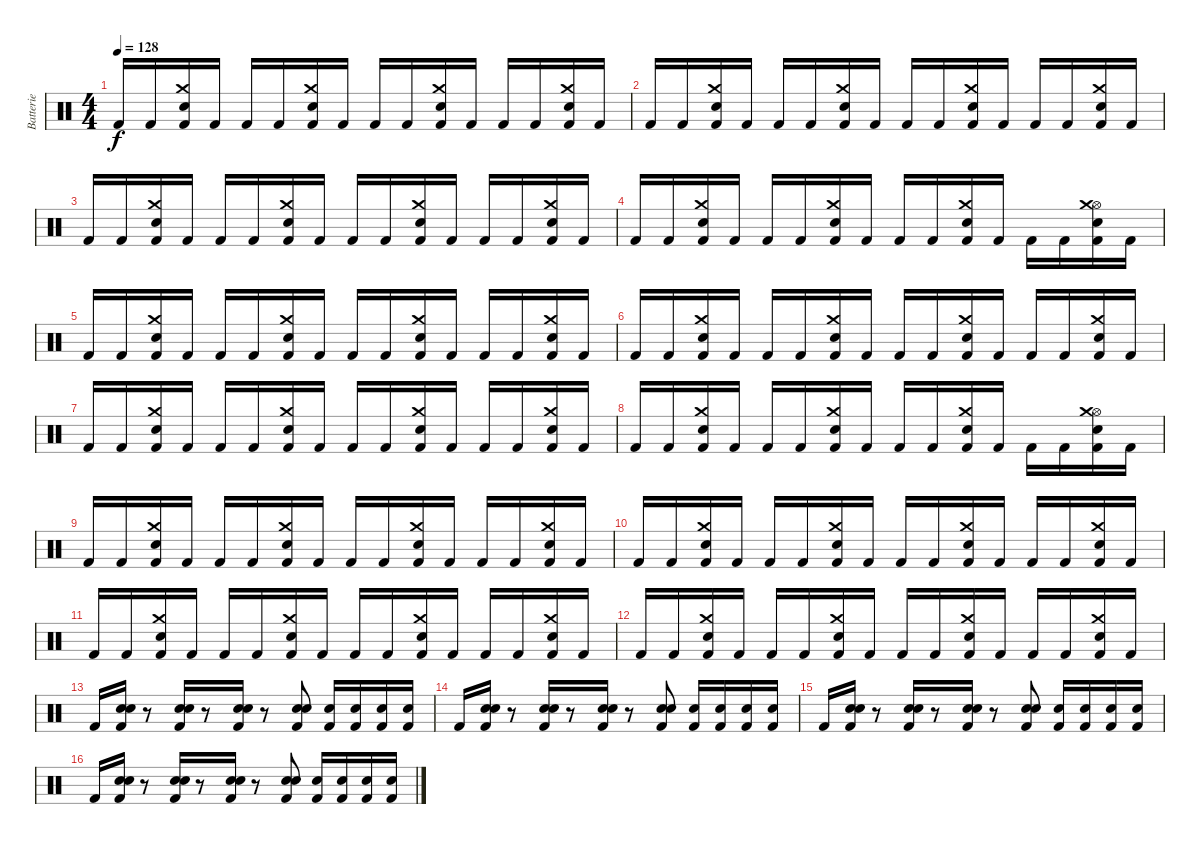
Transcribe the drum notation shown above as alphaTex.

\track ("Batterie" "Batterie") {instrument percussion}
\staff {score}
\articulation defaults
\ts (4 4)
\tempo 128
\clef neutral
\ks c "Kick (hit) 2".16{dy f} "Kick (hit) 2".16
("Crash medium (hit)" "Electric Snare (hit)" "Kick (hit) 2").16 "Kick (hit) 2".16 "Kick (hit) 2".16 "Kick (hit) 2".16 ("Crash medium (hit)" "Electric Snare (hit)" "Kick (hit) 2").16 "Kick (hit) 2".16 "Kick (hit) 2".16 "Kick (hit) 2".16 ("Electric Snare (hit)" "Crash medium (hit)" "Kick (hit) 2").16 "Kick (hit) 2".16 "Kick (hit) 2".16 "Kick (hit) 2".16 ("Crash medium (hit)" "Electric Snare (hit)" "Kick (hit) 2").16 "Kick (hit) 2".16 |
"Kick (hit) 2".16 "Kick (hit) 2".16 ("Crash medium (hit)" "Electric Snare (hit)" "Kick (hit) 2").16 "Kick (hit) 2".16 "Kick (hit) 2".16 "Kick (hit) 2".16 ("Crash medium (hit)" "Electric Snare (hit)" "Kick (hit) 2").16 "Kick (hit) 2".16 "Kick (hit) 2".16 "Kick (hit) 2".16 ("Electric Snare (hit)" "Crash medium (hit)" "Kick (hit) 2").16 "Kick (hit) 2".16 "Kick (hit) 2".16 "Kick (hit) 2".16 ("Crash medium (hit)" "Electric Snare (hit)" "Kick (hit) 2").16 "Kick (hit) 2".16 |
"Kick (hit) 2".16 "Kick (hit) 2".16 ("Crash medium (hit)" "Electric Snare (hit)" "Kick (hit) 2").16 "Kick (hit) 2".16 "Kick (hit) 2".16 "Kick (hit) 2".16 ("Crash medium (hit)" "Electric Snare (hit)" "Kick (hit) 2").16 "Kick (hit) 2".16 "Kick (hit) 2".16 "Kick (hit) 2".16 ("Electric Snare (hit)" "Crash medium (hit)" "Kick (hit) 2").16 "Kick (hit) 2".16 "Kick (hit) 2".16 "Kick (hit) 2".16 ("Crash medium (hit)" "Electric Snare (hit)" "Kick (hit) 2").16 "Kick (hit) 2".16 |
"Kick (hit) 2".16 "Kick (hit) 2".16 ("Crash medium (hit)" "Electric Snare (hit)" "Kick (hit) 2").16 "Kick (hit) 2".16 "Kick (hit) 2".16 "Kick (hit) 2".16 ("Crash medium (hit)" "Electric Snare (hit)" "Kick (hit) 2").16 "Kick (hit) 2".16 "Kick (hit) 2".16 "Kick (hit) 2".16 ("Electric Snare (hit)" "Crash medium (hit)" "Kick (hit) 2").16 "Kick (hit) 2".16 "Kick (hit) 2".16 "Kick (hit) 2".16 ("Hi-Hat (open)" "Crash medium (hit)" "Electric Snare (hit)" "Kick (hit) 2").16 "Kick (hit) 2".16 |
"Kick (hit) 2".16 "Kick (hit) 2".16 ("Crash medium (hit)" "Electric Snare (hit)" "Kick (hit) 2").16 "Kick (hit) 2".16 "Kick (hit) 2".16 "Kick (hit) 2".16 ("Crash medium (hit)" "Electric Snare (hit)" "Kick (hit) 2").16 "Kick (hit) 2".16 "Kick (hit) 2".16 "Kick (hit) 2".16 ("Electric Snare (hit)" "Crash medium (hit)" "Kick (hit) 2").16 "Kick (hit) 2".16 "Kick (hit) 2".16 "Kick (hit) 2".16 ("Crash medium (hit)" "Electric Snare (hit)" "Kick (hit) 2").16 "Kick (hit) 2".16 |
"Kick (hit) 2".16 "Kick (hit) 2".16 ("Crash medium (hit)" "Electric Snare (hit)" "Kick (hit) 2").16 "Kick (hit) 2".16 "Kick (hit) 2".16 "Kick (hit) 2".16 ("Crash medium (hit)" "Electric Snare (hit)" "Kick (hit) 2").16 "Kick (hit) 2".16 "Kick (hit) 2".16 "Kick (hit) 2".16 ("Electric Snare (hit)" "Crash medium (hit)" "Kick (hit) 2").16 "Kick (hit) 2".16 "Kick (hit) 2".16 "Kick (hit) 2".16 ("Crash medium (hit)" "Electric Snare (hit)" "Kick (hit) 2").16 "Kick (hit) 2".16 |
"Kick (hit) 2".16 "Kick (hit) 2".16 ("Crash medium (hit)" "Electric Snare (hit)" "Kick (hit) 2").16 "Kick (hit) 2".16 "Kick (hit) 2".16 "Kick (hit) 2".16 ("Crash medium (hit)" "Electric Snare (hit)" "Kick (hit) 2").16 "Kick (hit) 2".16 "Kick (hit) 2".16 "Kick (hit) 2".16 ("Electric Snare (hit)" "Crash medium (hit)" "Kick (hit) 2").16 "Kick (hit) 2".16 "Kick (hit) 2".16 "Kick (hit) 2".16 ("Crash medium (hit)" "Electric Snare (hit)" "Kick (hit) 2").16 "Kick (hit) 2".16 |
"Kick (hit) 2".16 "Kick (hit) 2".16 ("Crash medium (hit)" "Electric Snare (hit)" "Kick (hit) 2").16 "Kick (hit) 2".16 "Kick (hit) 2".16 "Kick (hit) 2".16 ("Crash medium (hit)" "Electric Snare (hit)" "Kick (hit) 2").16 "Kick (hit) 2".16 "Kick (hit) 2".16 "Kick (hit) 2".16 ("Electric Snare (hit)" "Crash medium (hit)" "Kick (hit) 2").16 "Kick (hit) 2".16 "Kick (hit) 2".16 "Kick (hit) 2".16 ("Hi-Hat (open)" "Crash medium (hit)" "Electric Snare (hit)" "Kick (hit) 2").16 "Kick (hit) 2".16 |
"Kick (hit) 2".16 "Kick (hit) 2".16 ("Crash medium (hit)" "Electric Snare (hit)" "Kick (hit) 2").16 "Kick (hit) 2".16 "Kick (hit) 2".16 "Kick (hit) 2".16 ("Crash medium (hit)" "Electric Snare (hit)" "Kick (hit) 2").16 "Kick (hit) 2".16 "Kick (hit) 2".16 "Kick (hit) 2".16 ("Electric Snare (hit)" "Crash medium (hit)" "Kick (hit) 2").16 "Kick (hit) 2".16 "Kick (hit) 2".16 "Kick (hit) 2".16 ("Crash medium (hit)" "Electric Snare (hit)" "Kick (hit) 2").16 "Kick (hit) 2".16 |
"Kick (hit) 2".16 "Kick (hit) 2".16 ("Crash medium (hit)" "Electric Snare (hit)" "Kick (hit) 2").16 "Kick (hit) 2".16 "Kick (hit) 2".16 "Kick (hit) 2".16 ("Crash medium (hit)" "Electric Snare (hit)" "Kick (hit) 2").16 "Kick (hit) 2".16 "Kick (hit) 2".16 "Kick (hit) 2".16 ("Electric Snare (hit)" "Crash medium (hit)" "Kick (hit) 2").16 "Kick (hit) 2".16 "Kick (hit) 2".16 "Kick (hit) 2".16 ("Crash medium (hit)" "Electric Snare (hit)" "Kick (hit) 2").16 "Kick (hit) 2".16 |
"Kick (hit) 2".16 "Kick (hit) 2".16 ("Crash medium (hit)" "Electric Snare (hit)" "Kick (hit) 2").16 "Kick (hit) 2".16 "Kick (hit) 2".16 "Kick (hit) 2".16 ("Crash medium (hit)" "Electric Snare (hit)" "Kick (hit) 2").16 "Kick (hit) 2".16 "Kick (hit) 2".16 "Kick (hit) 2".16 ("Electric Snare (hit)" "Crash medium (hit)" "Kick (hit) 2").16 "Kick (hit) 2".16 "Kick (hit) 2".16 "Kick (hit) 2".16 ("Crash medium (hit)" "Electric Snare (hit)" "Kick (hit) 2").16 "Kick (hit) 2".16 |
"Kick (hit) 2".16 "Kick (hit) 2".16 ("Crash medium (hit)" "Electric Snare (hit)" "Kick (hit) 2").16 "Kick (hit) 2".16 "Kick (hit) 2".16 "Kick (hit) 2".16 ("Crash medium (hit)" "Electric Snare (hit)" "Kick (hit) 2").16 "Kick (hit) 2".16 "Kick (hit) 2".16 "Kick (hit) 2".16 ("Electric Snare (hit)" "Crash medium (hit)" "Kick (hit) 2").16 "Kick (hit) 2".16 "Kick (hit) 2".16 "Kick (hit) 2".16 ("Crash medium (hit)" "Electric Snare (hit)" "Kick (hit) 2").16 "Kick (hit) 2".16 |
"Kick (hit) 2".16 ("Electric Snare (hit)" "Kick (hit) 2" "Snare (hit) 2").16 r.8 ("Snare (hit) 2" "Electric Snare (hit)" "Kick (hit) 2").16 r.8 ("Snare (hit) 2" "Electric Snare (hit)" "Kick (hit) 2").16 r.8 ("Electric Snare (hit)" "Snare (hit) 2" "Kick (hit) 2").8 ("Kick (hit) 2" "Electric Snare (hit)").16 ("Kick (hit) 2" "Electric Snare (hit)").16 ("Kick (hit) 2" "Electric Snare (hit)").16 ("Kick (hit) 2" "Electric Snare (hit)").16 |
"Kick (hit) 2".16 ("Electric Snare (hit)" "Kick (hit) 2" "Snare (hit) 2").16 r.8 ("Snare (hit) 2" "Electric Snare (hit)" "Kick (hit) 2").16 r.8 ("Snare (hit) 2" "Electric Snare (hit)" "Kick (hit) 2").16 r.8 ("Electric Snare (hit)" "Snare (hit) 2" "Kick (hit) 2").8 ("Kick (hit) 2" "Electric Snare (hit)").16 ("Kick (hit) 2" "Electric Snare (hit)").16 ("Kick (hit) 2" "Electric Snare (hit)").16 ("Kick (hit) 2" "Electric Snare (hit)").16 |
"Kick (hit) 2".16 ("Electric Snare (hit)" "Kick (hit) 2" "Snare (hit) 2").16 r.8 ("Snare (hit) 2" "Electric Snare (hit)" "Kick (hit) 2").16 r.8 ("Snare (hit) 2" "Electric Snare (hit)" "Kick (hit) 2").16 r.8 ("Electric Snare (hit)" "Snare (hit) 2" "Kick (hit) 2").8 ("Kick (hit) 2" "Electric Snare (hit)").16 ("Kick (hit) 2" "Electric Snare (hit)").16 ("Kick (hit) 2" "Electric Snare (hit)").16 ("Kick (hit) 2" "Electric Snare (hit)").16 |
"Kick (hit) 2".16 ("Electric Snare (hit)" "Kick (hit) 2" "Snare (hit) 2").16 r.8 ("Snare (hit) 2" "Electric Snare (hit)" "Kick (hit) 2").16 r.8 ("Snare (hit) 2" "Electric Snare (hit)" "Kick (hit) 2").16 r.8 ("Electric Snare (hit)" "Snare (hit) 2" "Kick (hit) 2").8 ("Kick (hit) 2" "Electric Snare (hit)").16 ("Kick (hit) 2" "Electric Snare (hit)").16 ("Kick (hit) 2" "Electric Snare (hit)").16 ("Kick (hit) 2" "Electric Snare (hit)").16
